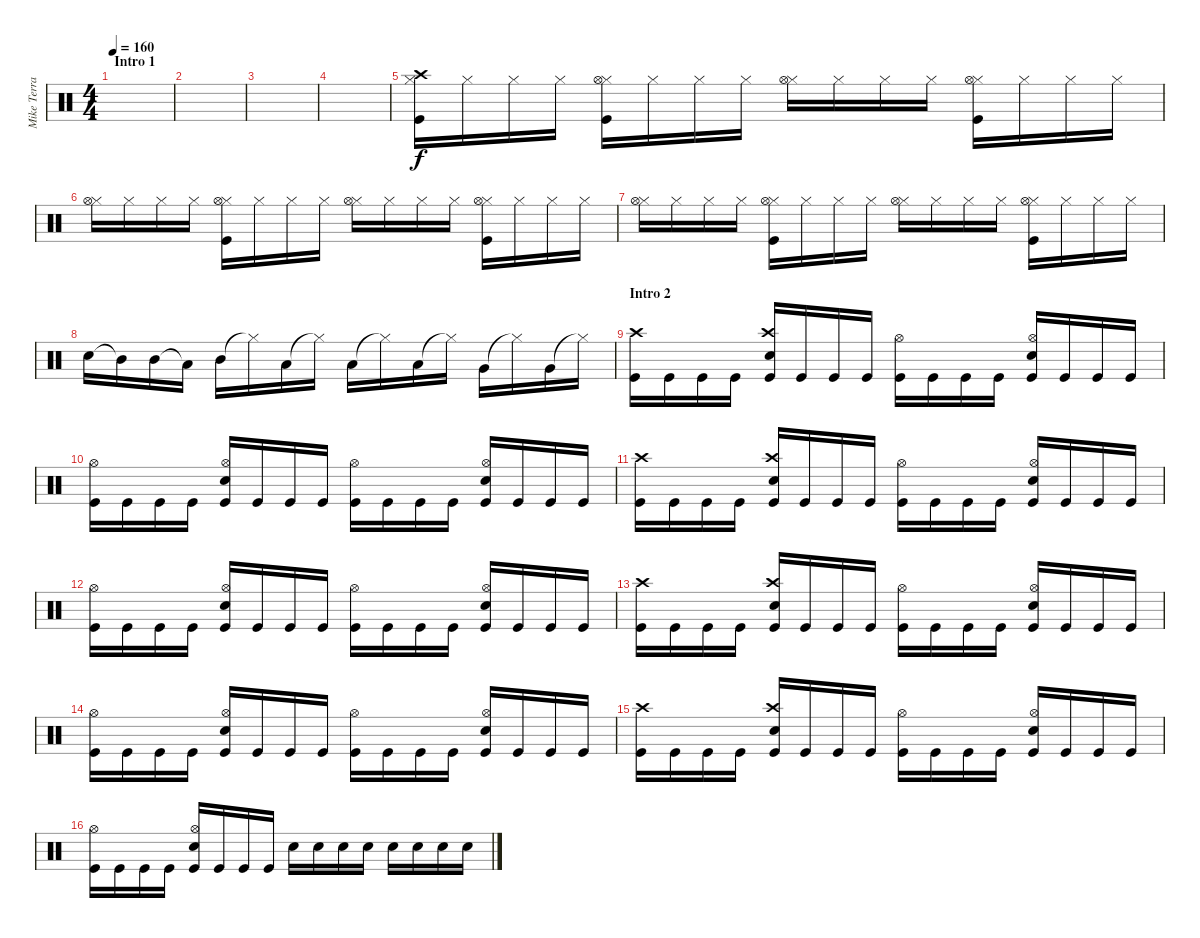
\track ("Mike Terrana - Drums" "Mike Terra") {instrument percussion}
\staff {score}
\articulation defaults
\ts (4 4)
\section ("" "Intro 1")
\tempo 160
\clef neutral
\ks c
|
|
|
|
("Kick (hit)" "Hi-Hat (closed)" "Crash high (hit)").16 "Hi-Hat (closed)".16 "Hi-Hat (closed)".16 "Hi-Hat (closed)".16 ("Kick (hit)" "Hi-Hat (closed)" "Hi-Hat (open)").16 "Hi-Hat (closed)".16 "Hi-Hat (closed)".16 "Hi-Hat (closed)".16 ("Hi-Hat (closed)" "Hi-Hat (open)").16 "Hi-Hat (closed)".16 "Hi-Hat (closed)".16 "Hi-Hat (closed)".16 ("Kick (hit)" "Hi-Hat (closed)" "Hi-Hat (open)").16 "Hi-Hat (closed)".16 "Hi-Hat (closed)".16 "Hi-Hat (closed)".16 |
("Hi-Hat (closed)" "Hi-Hat (open)").16 "Hi-Hat (closed)".16 "Hi-Hat (closed)".16 "Hi-Hat (closed)".16 ("Kick (hit)" "Hi-Hat (closed)" "Hi-Hat (open)").16 "Hi-Hat (closed)".16 "Hi-Hat (closed)".16 "Hi-Hat (closed)".16 ("Hi-Hat (closed)" "Hi-Hat (open)").16 "Hi-Hat (closed)".16 "Hi-Hat (closed)".16 "Hi-Hat (closed)".16 ("Kick (hit)" "Hi-Hat (closed)" "Hi-Hat (open)").16 "Hi-Hat (closed)".16 "Hi-Hat (closed)".16 "Hi-Hat (closed)".16 |
("Hi-Hat (closed)" "Hi-Hat (open)").16 "Hi-Hat (closed)".16 "Hi-Hat (closed)".16 "Hi-Hat (closed)".16 ("Kick (hit)" "Hi-Hat (closed)" "Hi-Hat (open)").16 "Hi-Hat (closed)".16 "Hi-Hat (closed)".16 "Hi-Hat (closed)".16 ("Hi-Hat (closed)" "Hi-Hat (open)").16 "Hi-Hat (closed)".16 "Hi-Hat (closed)".16 "Hi-Hat (closed)".16 ("Kick (hit)" "Hi-Hat (closed)" "Hi-Hat (open)").16 "Hi-Hat (closed)".16 "Hi-Hat (closed)".16 "Hi-Hat (closed)".16 |
"Electric Snare (hit)".16 "Mid Tom (hit)"{t}.16 "Mid Tom (hit)".16 "Low Tom (hit)"{t}.16 "Mid Tom (hit)".16 "Hi-Hat (closed)"{t}.16 "Low Tom (hit)".16 "Hi-Hat (closed)"{t}.16 "Low Tom (hit)".16 "Hi-Hat (closed)"{t}.16 "Low Tom (hit)".16 "Hi-Hat (closed)"{t}.16 "Very Low Tom (hit)".16 "Hi-Hat (closed)"{t}.16 "Very Low Tom (hit)".16 "Hi-Hat (closed)"{t}.16 |
\section ("" "Intro 2")
("Kick (hit)" "Crash high (hit)").16 "Kick (hit)".16 "Kick (hit)".16 "Kick (hit)".16 ("Kick (hit)" "Electric Snare (hit)" "Crash high (hit)").16 "Kick (hit)".16 "Kick (hit)".16 "Kick (hit)".16 ("Kick (hit)" "Hi-Hat (open)").16 "Kick (hit)".16 "Kick (hit)".16 "Kick (hit)".16 ("Kick (hit)" "Electric Snare (hit)" "Hi-Hat (open)").16 "Kick (hit)".16 "Kick (hit)".16 "Kick (hit)".16 |
("Kick (hit)" "Hi-Hat (open)").16 "Kick (hit)".16 "Kick (hit)".16 "Kick (hit)".16 ("Kick (hit)" "Electric Snare (hit)" "Hi-Hat (open)").16 "Kick (hit)".16 "Kick (hit)".16 "Kick (hit)".16 ("Kick (hit)" "Hi-Hat (open)").16 "Kick (hit)".16 "Kick (hit)".16 "Kick (hit)".16 ("Kick (hit)" "Electric Snare (hit)" "Hi-Hat (open)").16 "Kick (hit)".16 "Kick (hit)".16 "Kick (hit)".16 |
("Kick (hit)" "Crash high (hit)").16 "Kick (hit)".16 "Kick (hit)".16 "Kick (hit)".16 ("Kick (hit)" "Electric Snare (hit)" "Crash high (hit)").16 "Kick (hit)".16 "Kick (hit)".16 "Kick (hit)".16 ("Kick (hit)" "Hi-Hat (open)").16 "Kick (hit)".16 "Kick (hit)".16 "Kick (hit)".16 ("Kick (hit)" "Electric Snare (hit)" "Hi-Hat (open)").16 "Kick (hit)".16 "Kick (hit)".16 "Kick (hit)".16 |
("Kick (hit)" "Hi-Hat (open)").16 "Kick (hit)".16 "Kick (hit)".16 "Kick (hit)".16 ("Kick (hit)" "Electric Snare (hit)" "Hi-Hat (open)").16 "Kick (hit)".16 "Kick (hit)".16 "Kick (hit)".16 ("Kick (hit)" "Hi-Hat (open)").16 "Kick (hit)".16 "Kick (hit)".16 "Kick (hit)".16 ("Kick (hit)" "Electric Snare (hit)" "Hi-Hat (open)").16 "Kick (hit)".16 "Kick (hit)".16 "Kick (hit)".16 |
("Kick (hit)" "Crash high (hit)").16 "Kick (hit)".16 "Kick (hit)".16 "Kick (hit)".16 ("Kick (hit)" "Electric Snare (hit)" "Crash high (hit)").16 "Kick (hit)".16 "Kick (hit)".16 "Kick (hit)".16 ("Kick (hit)" "Hi-Hat (open)").16 "Kick (hit)".16 "Kick (hit)".16 "Kick (hit)".16 ("Kick (hit)" "Electric Snare (hit)" "Hi-Hat (open)").16 "Kick (hit)".16 "Kick (hit)".16 "Kick (hit)".16 |
("Kick (hit)" "Hi-Hat (open)").16 "Kick (hit)".16 "Kick (hit)".16 "Kick (hit)".16 ("Kick (hit)" "Electric Snare (hit)" "Hi-Hat (open)").16 "Kick (hit)".16 "Kick (hit)".16 "Kick (hit)".16 ("Kick (hit)" "Hi-Hat (open)").16 "Kick (hit)".16 "Kick (hit)".16 "Kick (hit)".16 ("Kick (hit)" "Electric Snare (hit)" "Hi-Hat (open)").16 "Kick (hit)".16 "Kick (hit)".16 "Kick (hit)".16 |
("Kick (hit)" "Crash high (hit)").16 "Kick (hit)".16 "Kick (hit)".16 "Kick (hit)".16 ("Kick (hit)" "Electric Snare (hit)" "Crash high (hit)").16 "Kick (hit)".16 "Kick (hit)".16 "Kick (hit)".16 ("Kick (hit)" "Hi-Hat (open)").16 "Kick (hit)".16 "Kick (hit)".16 "Kick (hit)".16 ("Kick (hit)" "Electric Snare (hit)" "Hi-Hat (open)").16 "Kick (hit)".16 "Kick (hit)".16 "Kick (hit)".16 |
("Kick (hit)" "Hi-Hat (open)").16 "Kick (hit)".16 "Kick (hit)".16 "Kick (hit)".16 ("Kick (hit)" "Electric Snare (hit)" "Hi-Hat (open)").16 "Kick (hit)".16 "Kick (hit)".16 "Kick (hit)".16 "Electric Snare (hit)".16 "Electric Snare (hit)".16 "Electric Snare (hit)".16 "Electric Snare (hit)".16 "Electric Snare (hit)".16 "Electric Snare (hit)".16 "Electric Snare (hit)".16 "Electric Snare (hit)".16
